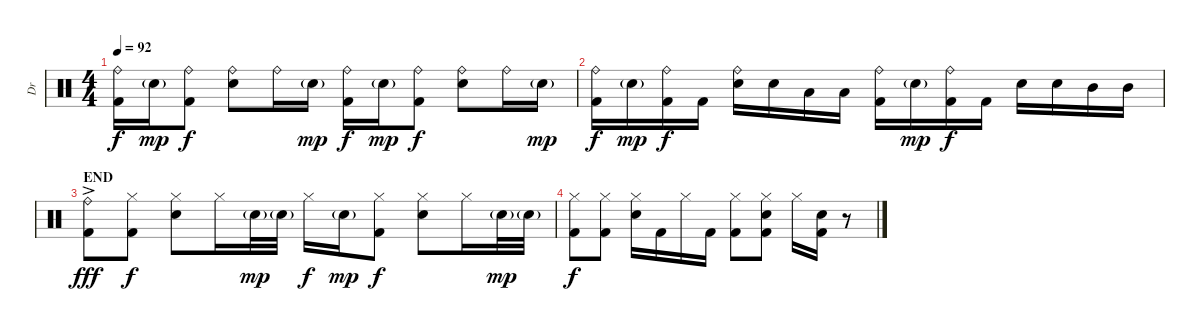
\track ("Dr" "Dr") {instrument percussion}
\staff {score}
\articulation defaults
\ts (4 4)
\tempo 92
\clef neutral
\ks c
("Ride (bell)" "Kick (hit) 2").16{dy f} "Electric Snare (hit)"{g}.16{dy mp} ("Ride (bell)" "Kick (hit) 2").8{dy f} ("Ride (bell)" "Electric Snare (hit)").8 "Ride (bell)".16 "Electric Snare (hit)"{g}.16{dy mp} ("Ride (bell)" "Kick (hit) 2").16{dy f} "Electric Snare (hit)"{g}.16{dy mp} ("Ride (bell)" "Kick (hit) 2").8{dy f} ("Ride (bell)" "Electric Snare (hit)").8 "Ride (bell)".16 "Electric Snare (hit)"{g}.16{dy mp} |
("Ride (bell)" "Kick (hit) 2").16{dy f} "Electric Snare (hit)"{g}.16{dy mp} ("Ride (bell)" "Kick (hit) 2").16{dy f} "Kick (hit) 2".16 ("Ride (bell)" "Electric Snare (hit)").16 "Electric Snare (hit)".16 "Low Tom (hit)".16 "Low Tom (hit)".16 ("Ride (bell)" "Kick (hit) 2").16 "Electric Snare (hit)"{g}.16{dy mp} ("Ride (bell)" "Kick (hit) 2").16{dy f} "Kick (hit) 2".16 "Electric Snare (hit)".16 "Electric Snare (hit)".16 "Mid Tom (hit)".16 "Mid Tom (hit)".16 |
\section ("" "END")
("Ride (bell)"{ac} "Kick (hit) 2"{ac}).8{dy fff} ("Hi-Hat (closed)" "Kick (hit) 2").8{dy f} ("Hi-Hat (closed)" "Electric Snare (hit)").8 "Hi-Hat (closed)".16 "Electric Snare (hit)"{g}.32{dy mp} "Electric Snare (hit)"{g}.32 "Hi-Hat (closed)".16{dy f} "Electric Snare (hit)"{g}.16{dy mp} ("Hi-Hat (closed)" "Kick (hit) 2").8{dy f} ("Hi-Hat (closed)" "Electric Snare (hit)").8 "Hi-Hat (closed)".16 "Electric Snare (hit)"{g}.32{dy mp} "Electric Snare (hit)"{g}.32 |
("Hi-Hat (closed)" "Kick (hit) 2").8{dy f} ("Hi-Hat (closed)" "Kick (hit) 2").8 ("Hi-Hat (closed)" "Electric Snare (hit)").16 "Kick (hit) 2".16 "Hi-Hat (closed)".16 "Kick (hit) 2".16 ("Hi-Hat (closed)" "Kick (hit) 2").8 ("Hi-Hat (closed)" "Electric Snare (hit)" "Kick (hit) 2").8 "Hi-Hat (closed)".16 ("Electric Snare (hit)" "Kick (hit) 2").16 r.8
